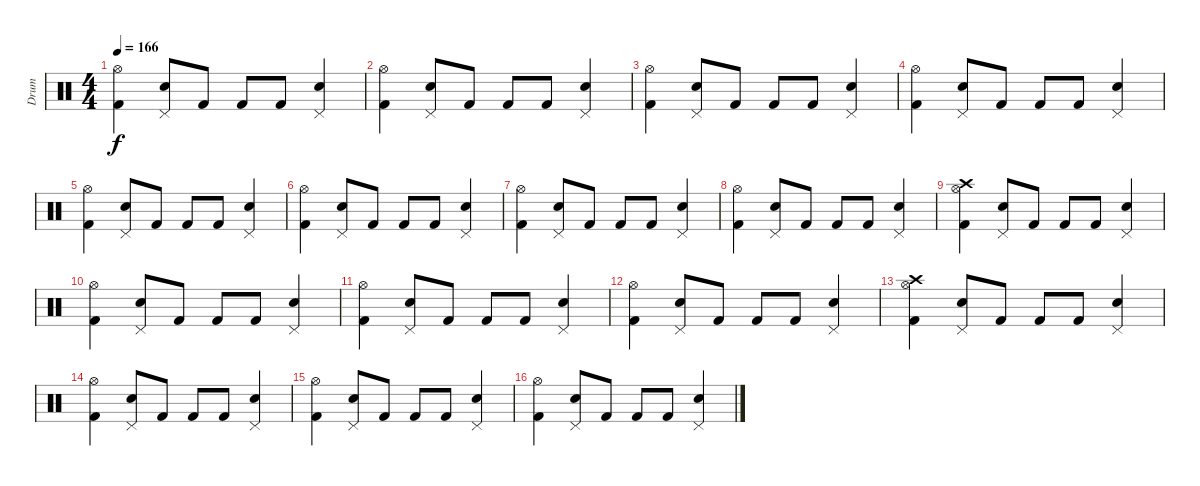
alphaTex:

\track ("Drum" "Drum") {instrument percussion}
\staff {score}
\articulation defaults
\ts (4 4)
\tempo 166
\clef neutral
\ks c
("Kick (hit) 2" "Hi-Hat (open)").4{dy f} ("Electric Snare (hit)" "Pedal Hi-Hat (hit)").8 "Kick (hit) 2".8 "Kick (hit) 2".8 "Kick (hit) 2".8 ("Electric Snare (hit)" "Pedal Hi-Hat (hit)").4 |
("Kick (hit) 2" "Hi-Hat (open)").4 ("Electric Snare (hit)" "Pedal Hi-Hat (hit)").8 "Kick (hit) 2".8 "Kick (hit) 2".8 "Kick (hit) 2".8 ("Electric Snare (hit)" "Pedal Hi-Hat (hit)").4 |
("Kick (hit) 2" "Hi-Hat (open)").4 ("Electric Snare (hit)" "Pedal Hi-Hat (hit)").8 "Kick (hit) 2".8 "Kick (hit) 2".8 "Kick (hit) 2".8 ("Electric Snare (hit)" "Pedal Hi-Hat (hit)").4 |
("Kick (hit) 2" "Hi-Hat (open)").4 ("Electric Snare (hit)" "Pedal Hi-Hat (hit)").8 "Kick (hit) 2".8 "Kick (hit) 2".8 "Kick (hit) 2".8 ("Electric Snare (hit)" "Pedal Hi-Hat (hit)").4 |
("Kick (hit) 2" "Hi-Hat (open)").4 ("Electric Snare (hit)" "Pedal Hi-Hat (hit)").8 "Kick (hit) 2".8 "Kick (hit) 2".8 "Kick (hit) 2".8 ("Electric Snare (hit)" "Pedal Hi-Hat (hit)").4 |
("Kick (hit) 2" "Hi-Hat (open)").4 ("Electric Snare (hit)" "Pedal Hi-Hat (hit)").8 "Kick (hit) 2".8 "Kick (hit) 2".8 "Kick (hit) 2".8 ("Electric Snare (hit)" "Pedal Hi-Hat (hit)").4 |
("Kick (hit) 2" "Hi-Hat (open)").4 ("Electric Snare (hit)" "Pedal Hi-Hat (hit)").8 "Kick (hit) 2".8 "Kick (hit) 2".8 "Kick (hit) 2".8 ("Electric Snare (hit)" "Pedal Hi-Hat (hit)").4 |
("Kick (hit) 2" "Hi-Hat (open)").4 ("Electric Snare (hit)" "Pedal Hi-Hat (hit)").8 "Kick (hit) 2".8 "Kick (hit) 2".8 "Kick (hit) 2".8 ("Electric Snare (hit)" "Pedal Hi-Hat (hit)").4 |
("Kick (hit) 2" "Hi-Hat (open)" "Crash high (hit)").4 ("Electric Snare (hit)" "Pedal Hi-Hat (hit)").8 "Kick (hit) 2".8 "Kick (hit) 2".8 "Kick (hit) 2".8 ("Electric Snare (hit)" "Pedal Hi-Hat (hit)").4 |
("Kick (hit) 2" "Hi-Hat (open)").4 ("Electric Snare (hit)" "Pedal Hi-Hat (hit)").8 "Kick (hit) 2".8 "Kick (hit) 2".8 "Kick (hit) 2".8 ("Electric Snare (hit)" "Pedal Hi-Hat (hit)").4 |
("Kick (hit) 2" "Hi-Hat (open)").4 ("Electric Snare (hit)" "Pedal Hi-Hat (hit)").8 "Kick (hit) 2".8 "Kick (hit) 2".8 "Kick (hit) 2".8 ("Electric Snare (hit)" "Pedal Hi-Hat (hit)").4 |
("Kick (hit) 2" "Hi-Hat (open)").4 ("Electric Snare (hit)" "Pedal Hi-Hat (hit)").8 "Kick (hit) 2".8 "Kick (hit) 2".8 "Kick (hit) 2".8 ("Electric Snare (hit)" "Pedal Hi-Hat (hit)").4 |
("Kick (hit) 2" "Hi-Hat (open)" "Crash high (hit)").4 ("Electric Snare (hit)" "Pedal Hi-Hat (hit)").8 "Kick (hit) 2".8 "Kick (hit) 2".8 "Kick (hit) 2".8 ("Electric Snare (hit)" "Pedal Hi-Hat (hit)").4 |
("Kick (hit) 2" "Hi-Hat (open)").4 ("Electric Snare (hit)" "Pedal Hi-Hat (hit)").8 "Kick (hit) 2".8 "Kick (hit) 2".8 "Kick (hit) 2".8 ("Electric Snare (hit)" "Pedal Hi-Hat (hit)").4 |
("Kick (hit) 2" "Hi-Hat (open)").4 ("Electric Snare (hit)" "Pedal Hi-Hat (hit)").8 "Kick (hit) 2".8 "Kick (hit) 2".8 "Kick (hit) 2".8 ("Electric Snare (hit)" "Pedal Hi-Hat (hit)").4 |
("Kick (hit) 2" "Hi-Hat (open)").4 ("Electric Snare (hit)" "Pedal Hi-Hat (hit)").8 "Kick (hit) 2".8 "Kick (hit) 2".8 "Kick (hit) 2".8 ("Electric Snare (hit)" "Pedal Hi-Hat (hit)").4
